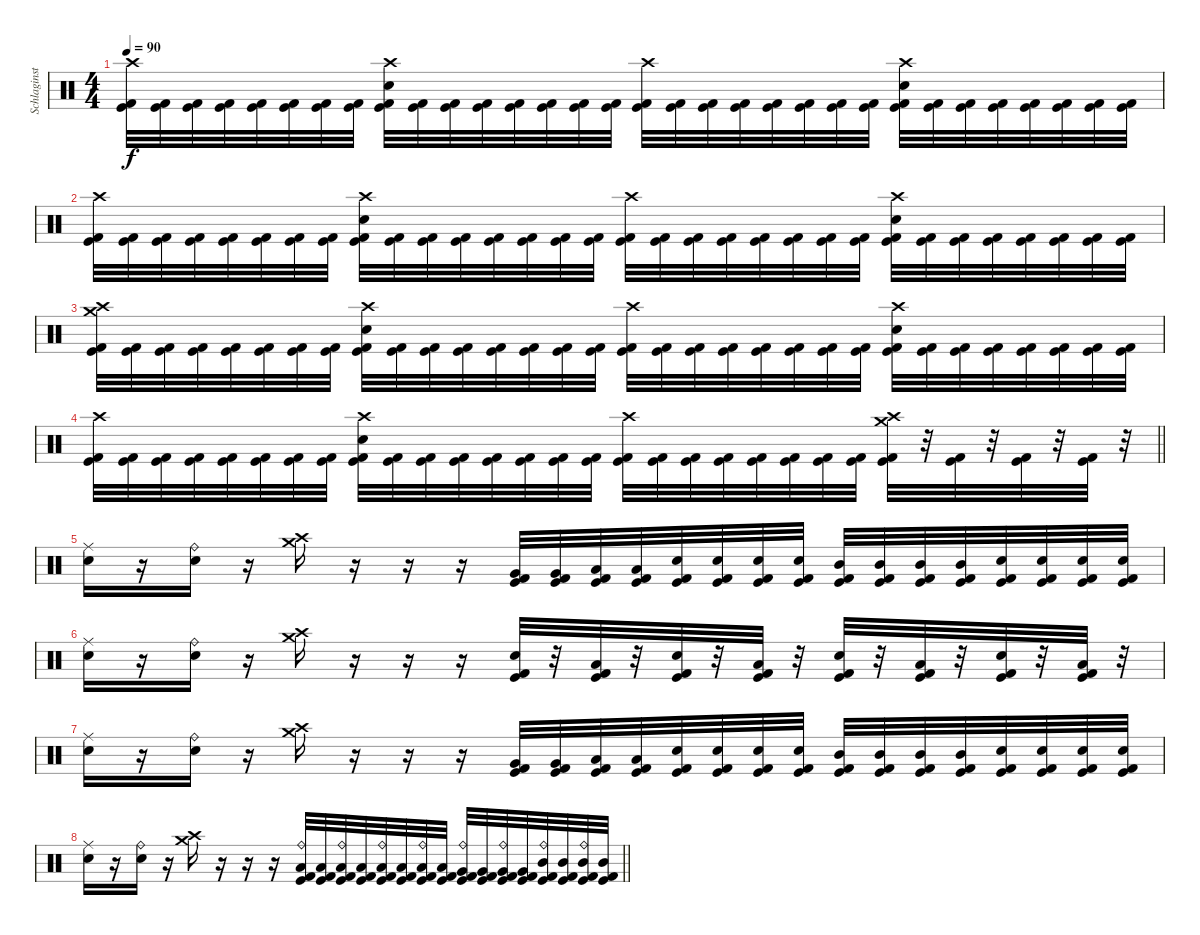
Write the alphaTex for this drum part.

\track ("Schlaginstrumente - Auswahl" "Schlaginst") {instrument percussion}
\staff {score}
\articulation defaults
\ts (4 4)
\tempo 90
\clef neutral
\ks c
("Crash high (hit)" "Kick (hit)" "Kick (hit) 2").32{dy f} ("Kick (hit)" "Kick (hit) 2").32 ("Kick (hit)" "Kick (hit) 2").32 ("Kick (hit)" "Kick (hit) 2").32 ("Kick (hit)" "Kick (hit) 2").32 ("Kick (hit)" "Kick (hit) 2").32 ("Kick (hit)" "Kick (hit) 2").32 ("Kick (hit)" "Kick (hit) 2").32 ("Crash high (hit)" "Electric Snare (hit)" "Kick (hit)" "Kick (hit) 2").32 ("Kick (hit)" "Kick (hit) 2").32 ("Kick (hit)" "Kick (hit) 2").32 ("Kick (hit)" "Kick (hit) 2").32 ("Kick (hit)" "Kick (hit) 2").32 ("Kick (hit)" "Kick (hit) 2").32 ("Kick (hit)" "Kick (hit) 2").32 ("Kick (hit)" "Kick (hit) 2").32 ("Crash high (hit)" "Kick (hit)" "Kick (hit) 2").32 ("Kick (hit)" "Kick (hit) 2").32 ("Kick (hit)" "Kick (hit) 2").32 ("Kick (hit)" "Kick (hit) 2").32 ("Kick (hit)" "Kick (hit) 2").32 ("Kick (hit)" "Kick (hit) 2").32 ("Kick (hit)" "Kick (hit) 2").32 ("Kick (hit)" "Kick (hit) 2").32 ("Crash high (hit)" "Electric Snare (hit)" "Kick (hit)" "Kick (hit) 2").32 ("Kick (hit)" "Kick (hit) 2").32 ("Kick (hit)" "Kick (hit) 2").32 ("Kick (hit)" "Kick (hit) 2").32 ("Kick (hit)" "Kick (hit) 2").32 ("Kick (hit)" "Kick (hit) 2").32 ("Kick (hit)" "Kick (hit) 2").32 ("Kick (hit)" "Kick (hit) 2").32 |
("Crash high (hit)" "Kick (hit)" "Kick (hit) 2").32 ("Kick (hit)" "Kick (hit) 2").32 ("Kick (hit)" "Kick (hit) 2").32 ("Kick (hit)" "Kick (hit) 2").32 ("Kick (hit)" "Kick (hit) 2").32 ("Kick (hit)" "Kick (hit) 2").32 ("Kick (hit)" "Kick (hit) 2").32 ("Kick (hit)" "Kick (hit) 2").32 ("Crash high (hit)" "Electric Snare (hit)" "Kick (hit)" "Kick (hit) 2").32 ("Kick (hit)" "Kick (hit) 2").32 ("Kick (hit)" "Kick (hit) 2").32 ("Kick (hit)" "Kick (hit) 2").32 ("Kick (hit)" "Kick (hit) 2").32 ("Kick (hit)" "Kick (hit) 2").32 ("Kick (hit)" "Kick (hit) 2").32 ("Kick (hit)" "Kick (hit) 2").32 ("Crash high (hit)" "Kick (hit)" "Kick (hit) 2").32 ("Kick (hit)" "Kick (hit) 2").32 ("Kick (hit)" "Kick (hit) 2").32 ("Kick (hit)" "Kick (hit) 2").32 ("Kick (hit)" "Kick (hit) 2").32 ("Kick (hit)" "Kick (hit) 2").32 ("Kick (hit)" "Kick (hit) 2").32 ("Kick (hit)" "Kick (hit) 2").32 ("Crash high (hit)" "Electric Snare (hit)" "Kick (hit)" "Kick (hit) 2").32 ("Kick (hit)" "Kick (hit) 2").32 ("Kick (hit)" "Kick (hit) 2").32 ("Kick (hit)" "Kick (hit) 2").32 ("Kick (hit)" "Kick (hit) 2").32 ("Kick (hit)" "Kick (hit) 2").32 ("Kick (hit)" "Kick (hit) 2").32 ("Kick (hit)" "Kick (hit) 2").32 |
("Crash high (hit)" "Crash medium (hit)" "Kick (hit)" "Kick (hit) 2").32 ("Kick (hit)" "Kick (hit) 2").32 ("Kick (hit)" "Kick (hit) 2").32 ("Kick (hit)" "Kick (hit) 2").32 ("Kick (hit)" "Kick (hit) 2").32 ("Kick (hit)" "Kick (hit) 2").32 ("Kick (hit)" "Kick (hit) 2").32 ("Kick (hit)" "Kick (hit) 2").32 ("Crash high (hit)" "Electric Snare (hit)" "Kick (hit)" "Kick (hit) 2").32 ("Kick (hit)" "Kick (hit) 2").32 ("Kick (hit)" "Kick (hit) 2").32 ("Kick (hit)" "Kick (hit) 2").32 ("Kick (hit)" "Kick (hit) 2").32 ("Kick (hit)" "Kick (hit) 2").32 ("Kick (hit)" "Kick (hit) 2").32 ("Kick (hit)" "Kick (hit) 2").32 ("Crash high (hit)" "Kick (hit)" "Kick (hit) 2").32 ("Kick (hit)" "Kick (hit) 2").32 ("Kick (hit)" "Kick (hit) 2").32 ("Kick (hit)" "Kick (hit) 2").32 ("Kick (hit)" "Kick (hit) 2").32 ("Kick (hit)" "Kick (hit) 2").32 ("Kick (hit)" "Kick (hit) 2").32 ("Kick (hit)" "Kick (hit) 2").32 ("Crash high (hit)" "Electric Snare (hit)" "Kick (hit)" "Kick (hit) 2").32 ("Kick (hit)" "Kick (hit) 2").32 ("Kick (hit)" "Kick (hit) 2").32 ("Kick (hit)" "Kick (hit) 2").32 ("Kick (hit)" "Kick (hit) 2").32 ("Kick (hit)" "Kick (hit) 2").32 ("Kick (hit)" "Kick (hit) 2").32 ("Kick (hit)" "Kick (hit) 2").32 |
\barLineRight lightlight
("Crash high (hit)" "Kick (hit)" "Kick (hit) 2").32 ("Kick (hit)" "Kick (hit) 2").32 ("Kick (hit)" "Kick (hit) 2").32 ("Kick (hit)" "Kick (hit) 2").32 ("Kick (hit)" "Kick (hit) 2").32 ("Kick (hit)" "Kick (hit) 2").32 ("Kick (hit)" "Kick (hit) 2").32 ("Kick (hit)" "Kick (hit) 2").32 ("Crash high (hit)" "Electric Snare (hit)" "Kick (hit)" "Kick (hit) 2").32 ("Kick (hit)" "Kick (hit) 2").32 ("Kick (hit)" "Kick (hit) 2").32 ("Kick (hit)" "Kick (hit) 2").32 ("Kick (hit)" "Kick (hit) 2").32 ("Kick (hit)" "Kick (hit) 2").32 ("Kick (hit)" "Kick (hit) 2").32 ("Kick (hit)" "Kick (hit) 2").32 ("Crash high (hit)" "Kick (hit)" "Kick (hit) 2").32 ("Kick (hit)" "Kick (hit) 2").32 ("Kick (hit)" "Kick (hit) 2").32 ("Kick (hit)" "Kick (hit) 2").32 ("Kick (hit)" "Kick (hit) 2").32 ("Kick (hit)" "Kick (hit) 2").32 ("Kick (hit)" "Kick (hit) 2").32 ("Kick (hit)" "Kick (hit) 2").32 ("Crash high (hit)" "Crash medium (hit)" "Kick (hit)" "Kick (hit) 2").32 r.32 ("Kick (hit)" "Kick (hit) 2").32 r.32 ("Kick (hit)" "Kick (hit) 2").32 r.32 ("Kick (hit)" "Kick (hit) 2").32 r.32 |
("Ride (middle)" "Electric Snare (hit)").16 r.16 ("Ride (bell)" "Snare (hit) 2").16 r.16 ("Crash high (hit)" "Crash medium (hit)").16 r.16 r.16 r.16 ("Very Low Tom (hit)" "Kick (hit)" "Kick (hit) 2").32 ("Very Low Tom (hit)" "Kick (hit)" "Kick (hit) 2").32 ("Low Floor Tom (hit)" "Kick (hit)" "Kick (hit) 2").32 ("Low Floor Tom (hit)" "Kick (hit)" "Kick (hit) 2").32 ("Electric Snare (hit)" "Kick (hit)" "Kick (hit) 2").32 ("Electric Snare (hit)" "Kick (hit)" "Kick (hit) 2").32 ("Electric Snare (hit)" "Kick (hit)" "Kick (hit) 2").32 ("Electric Snare (hit)" "Kick (hit)" "Kick (hit) 2").32 ("Mid Tom (hit)" "Kick (hit)" "Kick (hit) 2").32 ("Mid Tom (hit)" "Kick (hit)" "Kick (hit) 2").32 ("Mid Tom (hit)" "Kick (hit)" "Kick (hit) 2").32 ("Mid Tom (hit)" "Kick (hit)" "Kick (hit) 2").32 ("Electric Snare (hit)" "Kick (hit)" "Kick (hit) 2").32 ("Electric Snare (hit)" "Kick (hit)" "Kick (hit) 2").32 ("Electric Snare (hit)" "Kick (hit)" "Kick (hit) 2").32 ("Electric Snare (hit)" "Kick (hit)" "Kick (hit) 2").32 |
("Ride (middle)" "Electric Snare (hit)").16 r.16 ("Ride (bell)" "Snare (hit) 2").16 r.16 ("Crash high (hit)" "Crash medium (hit)").16 r.16 r.16 r.16 ("Electric Snare (hit)" "Kick (hit)" "Kick (hit) 2").32 r.32 ("Low Floor Tom (hit)" "Kick (hit)" "Kick (hit) 2").32 r.32 ("Electric Snare (hit)" "Kick (hit)" "Kick (hit) 2").32 r.32 ("Low Floor Tom (hit)" "Kick (hit)" "Kick (hit) 2").32 r.32 ("Electric Snare (hit)" "Kick (hit)" "Kick (hit) 2").32 r.32 ("Low Floor Tom (hit)" "Kick (hit)" "Kick (hit) 2").32 r.32 ("Electric Snare (hit)" "Kick (hit)" "Kick (hit) 2").32 r.32 ("Low Floor Tom (hit)" "Kick (hit)" "Kick (hit) 2").32 r.32 |
("Ride (middle)" "Electric Snare (hit)").16 r.16 ("Ride (bell)" "Snare (hit) 2").16 r.16 ("Crash high (hit)" "Crash medium (hit)").16 r.16 r.16 r.16 ("Very Low Tom (hit)" "Kick (hit)" "Kick (hit) 2").32 ("Very Low Tom (hit)" "Kick (hit)" "Kick (hit) 2").32 ("Low Floor Tom (hit)" "Kick (hit)" "Kick (hit) 2").32 ("Low Floor Tom (hit)" "Kick (hit)" "Kick (hit) 2").32 ("Electric Snare (hit)" "Kick (hit)" "Kick (hit) 2").32 ("Electric Snare (hit)" "Kick (hit)" "Kick (hit) 2").32 ("Electric Snare (hit)" "Kick (hit)" "Kick (hit) 2").32 ("Electric Snare (hit)" "Kick (hit)" "Kick (hit) 2").32 ("Mid Tom (hit)" "Kick (hit)" "Kick (hit) 2").32 ("Mid Tom (hit)" "Kick (hit)" "Kick (hit) 2").32 ("Mid Tom (hit)" "Kick (hit)" "Kick (hit) 2").32 ("Mid Tom (hit)" "Kick (hit)" "Kick (hit) 2").32 ("Electric Snare (hit)" "Kick (hit)" "Kick (hit) 2").32 ("Electric Snare (hit)" "Kick (hit)" "Kick (hit) 2").32 ("Electric Snare (hit)" "Kick (hit)" "Kick (hit) 2").32 ("Electric Snare (hit)" "Kick (hit)" "Kick (hit) 2").32 |
\barLineRight lightlight
("Ride (middle)" "Electric Snare (hit)").16 r.16 ("Ride (bell)" "Snare (hit) 2").16 r.16 ("Crash high (hit)" "Crash medium (hit)").16 r.16 r.16 r.16 ("Ride (bell)" "Low Tom (hit)" "Kick (hit)" "Kick (hit) 2").32 ("Low Tom (hit)" "Kick (hit)" "Kick (hit) 2").32 ("Ride (bell)" "Low Tom (hit)" "Kick (hit)" "Kick (hit) 2").32 ("Low Tom (hit)" "Kick (hit)" "Kick (hit) 2").32 ("Ride (bell)" "Low Floor Tom (hit)" "Kick (hit)" "Kick (hit) 2").32 ("Low Floor Tom (hit)" "Kick (hit)" "Kick (hit) 2").32 ("Ride (bell)" "Low Floor Tom (hit)" "Kick (hit)" "Kick (hit) 2").32 ("Low Floor Tom (hit)" "Kick (hit)" "Kick (hit) 2").32 ("Ride (bell)" "Very Low Tom (hit)" "Kick (hit)" "Kick (hit) 2").32 ("Very Low Tom (hit)" "Kick (hit)" "Kick (hit) 2").32 ("Ride (bell)" "Very Low Tom (hit)" "Kick (hit)" "Kick (hit) 2").32 ("Very Low Tom (hit)" "Kick (hit)" "Kick (hit) 2").32 ("Ride (bell)" "Mid Tom (hit)" "Kick (hit)" "Kick (hit) 2").32 ("Mid Tom (hit)" "Kick (hit)" "Kick (hit) 2").32 ("Ride (bell)" "Mid Tom (hit)" "Kick (hit)" "Kick (hit) 2").32 ("Mid Tom (hit)" "Kick (hit)" "Kick (hit) 2").32
